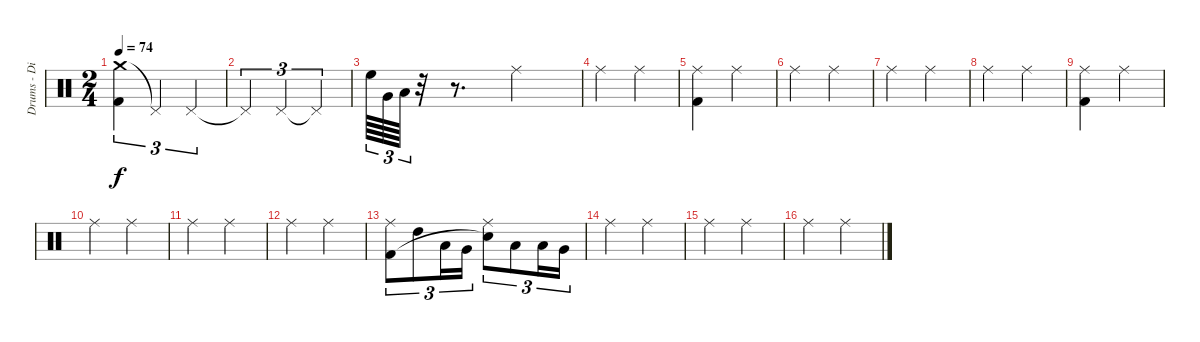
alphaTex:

\track ("Drums - Dino Campanella" "Drums - Di") {instrument percussion}
\staff {score}
\articulation defaults
\ts (2 4)
\tempo 74
\clef neutral
\ks c
("Crash medium (hit)" "Kick (hit) 2").4{tu (3 2) dy f} "Pedal Hi-Hat (hit)"{t}.4{tu (3 2)} "Pedal Hi-Hat (hit)".4{tu (3 2)} |
"Pedal Hi-Hat (hit)"{t}.4{tu (3 2)} "Pedal Hi-Hat (hit)".4{tu (3 2)} "Pedal Hi-Hat (hit)"{t}.4{tu (3 2)} |
"High Floor Tom (hit)".64{tu (3 2)} "Very Low Tom (hit)".64{tu (3 2)} "Low Tom (hit)".64{tu (3 2)} r.32 r.8{d} "Ride (middle)".4 |
"Ride (middle)".4 "Ride (middle)".4 |
("Ride (middle)" "Kick (hit) 2").4 "Ride (middle)".4 |
"Ride (middle)".4 "Ride (middle)".4 |
"Ride (middle)".4 "Ride (middle)".4 |
"Ride (middle)".4 "Ride (middle)".4 |
("Ride (middle)" "Kick (hit) 2").4 "Ride (middle)".4 |
"Ride (middle)".4 "Ride (middle)".4 |
"Ride (middle)".4 "Ride (middle)".4 |
"Ride (middle)".4 "Ride (middle)".4 |
("Ride (middle)" "Kick (hit) 2").8{tu (3 2)} "High Tom (hit)".8{tu (3 2)} "Low Tom (hit)".16{tu (3 2)} "Very Low Tom (hit)".16{tu (3 2)} ("Ride (middle)" "Snare (hit)"{t}).8{tu (3 2)} "Low Tom (hit)".8{tu (3 2)} "Low Tom (hit)".16{tu (3 2)} "Very Low Tom (hit)".16{tu (3 2)} |
"Ride (middle)".4 "Ride (middle)".4 |
"Ride (middle)".4 "Ride (middle)".4 |
"Ride (middle)".4 "Ride (middle)".4
